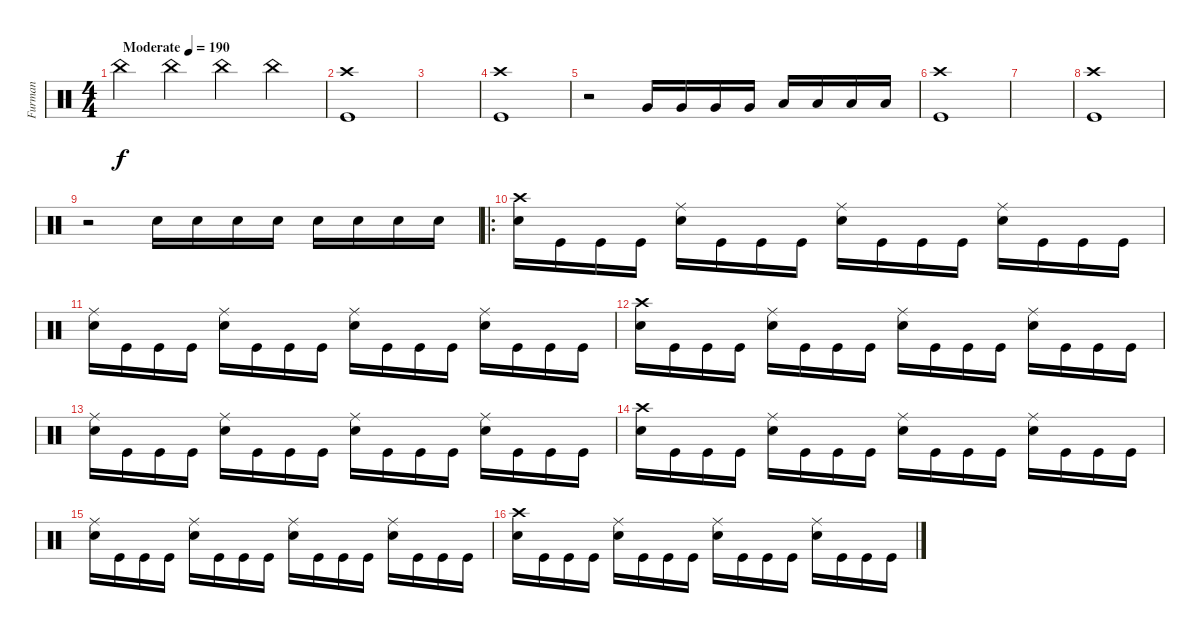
\track ("Furman" "Furman") {instrument percussion}
\staff {score}
\articulation defaults
\ts (4 4)
\tempo (190 "Moderate")
\clef neutral
\ks c "China (hit)".4{dy f} "China (hit)".4 "China (hit)".4 "China (hit)".4
|
("Crash high (hit)" "Kick (hit)").1 |
|
("Crash high (hit)" "Kick (hit)").1 |
r.2 "Very Low Tom (hit)".16 "Very Low Tom (hit)".16 "Very Low Tom (hit)".16 "Very Low Tom (hit)".16 "Low Floor Tom (hit)".16 "Low Floor Tom (hit)".16 "Low Floor Tom (hit)".16 "Low Floor Tom (hit)".16 |
("Crash high (hit)" "Kick (hit)").1 |
|
("Crash high (hit)" "Kick (hit)").1 |
r.2 "Electric Snare (hit)".16 "Electric Snare (hit)".16 "Electric Snare (hit)".16 "Electric Snare (hit)".16 "Electric Snare (hit)".16 "Electric Snare (hit)".16 "Electric Snare (hit)".16 "Electric Snare (hit)".16 |
\ro
("Crash high (hit)" "Electric Snare (hit)").16 "Kick (hit)".16 "Kick (hit)".16 "Kick (hit)".16 ("Ride (middle)" "Electric Snare (hit)").16 "Kick (hit)".16 "Kick (hit)".16 "Kick (hit)".16 ("Ride (middle)" "Electric Snare (hit)").16 "Kick (hit)".16 "Kick (hit)".16 "Kick (hit)".16 ("Ride (middle)" "Electric Snare (hit)").16 "Kick (hit)".16 "Kick (hit)".16 "Kick (hit)".16 |
("Ride (middle)" "Electric Snare (hit)").16 "Kick (hit)".16 "Kick (hit)".16 "Kick (hit)".16 ("Ride (middle)" "Electric Snare (hit)").16 "Kick (hit)".16 "Kick (hit)".16 "Kick (hit)".16 ("Ride (middle)" "Electric Snare (hit)").16 "Kick (hit)".16 "Kick (hit)".16 "Kick (hit)".16 ("Ride (middle)" "Electric Snare (hit)").16 "Kick (hit)".16 "Kick (hit)".16 "Kick (hit)".16 |
("Crash high (hit)" "Electric Snare (hit)").16 "Kick (hit)".16 "Kick (hit)".16 "Kick (hit)".16 ("Ride (middle)" "Electric Snare (hit)").16 "Kick (hit)".16 "Kick (hit)".16 "Kick (hit)".16 ("Ride (middle)" "Electric Snare (hit)").16 "Kick (hit)".16 "Kick (hit)".16 "Kick (hit)".16 ("Ride (middle)" "Electric Snare (hit)").16 "Kick (hit)".16 "Kick (hit)".16 "Kick (hit)".16 |
("Ride (middle)" "Electric Snare (hit)").16 "Kick (hit)".16 "Kick (hit)".16 "Kick (hit)".16 ("Ride (middle)" "Electric Snare (hit)").16 "Kick (hit)".16 "Kick (hit)".16 "Kick (hit)".16 ("Ride (middle)" "Electric Snare (hit)").16 "Kick (hit)".16 "Kick (hit)".16 "Kick (hit)".16 ("Ride (middle)" "Electric Snare (hit)").16 "Kick (hit)".16 "Kick (hit)".16 "Kick (hit)".16 |
("Crash high (hit)" "Electric Snare (hit)").16 "Kick (hit)".16 "Kick (hit)".16 "Kick (hit)".16 ("Ride (middle)" "Electric Snare (hit)").16 "Kick (hit)".16 "Kick (hit)".16 "Kick (hit)".16 ("Ride (middle)" "Electric Snare (hit)").16 "Kick (hit)".16 "Kick (hit)".16 "Kick (hit)".16 ("Ride (middle)" "Electric Snare (hit)").16 "Kick (hit)".16 "Kick (hit)".16 "Kick (hit)".16 |
("Ride (middle)" "Electric Snare (hit)").16 "Kick (hit)".16 "Kick (hit)".16 "Kick (hit)".16 ("Ride (middle)" "Electric Snare (hit)").16 "Kick (hit)".16 "Kick (hit)".16 "Kick (hit)".16 ("Ride (middle)" "Electric Snare (hit)").16 "Kick (hit)".16 "Kick (hit)".16 "Kick (hit)".16 ("Ride (middle)" "Electric Snare (hit)").16 "Kick (hit)".16 "Kick (hit)".16 "Kick (hit)".16 |
("Crash high (hit)" "Electric Snare (hit)").16 "Kick (hit)".16 "Kick (hit)".16 "Kick (hit)".16 ("Ride (middle)" "Electric Snare (hit)").16 "Kick (hit)".16 "Kick (hit)".16 "Kick (hit)".16 ("Ride (middle)" "Electric Snare (hit)").16 "Kick (hit)".16 "Kick (hit)".16 "Kick (hit)".16 ("Ride (middle)" "Electric Snare (hit)").16 "Kick (hit)".16 "Kick (hit)".16 "Kick (hit)".16
